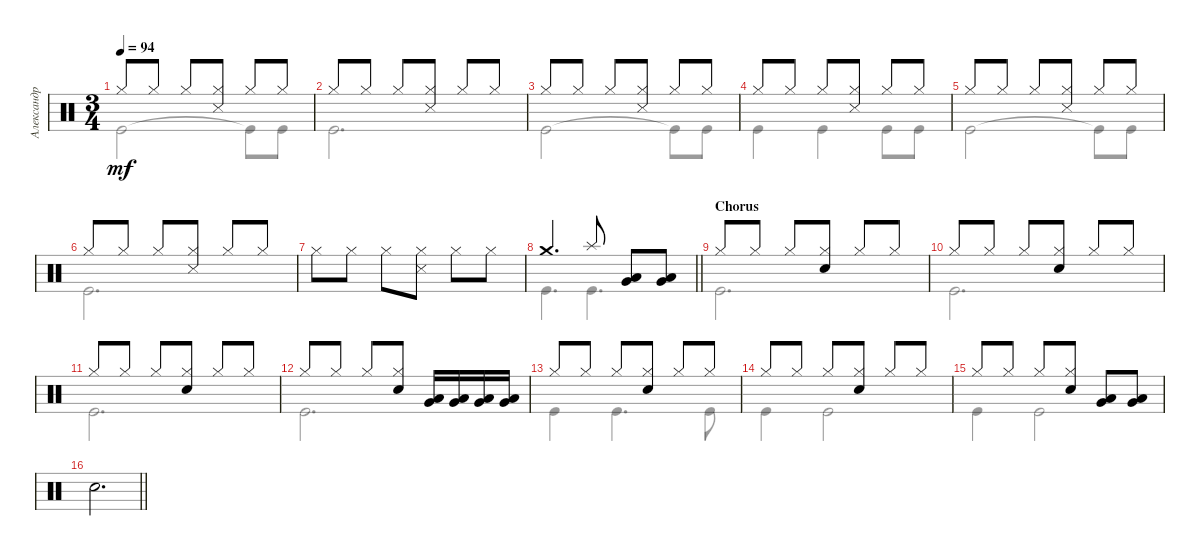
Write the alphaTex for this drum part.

\track ("Александр Манякин" "Александр ") {instrument percussion}
\staff {score}
\articulation defaults
\voice
\ts (3 4)
\tempo 94
\clef neutral
\ks c "Hi-Hat (closed)".8{dy mf} "Hi-Hat (closed)".8 "Hi-Hat (closed)".8
("Hi-Hat (closed)" "Snare (side stick) 3").8 "Hi-Hat (closed)".8 "Hi-Hat (closed)".8 |
"Hi-Hat (closed)".8 "Hi-Hat (closed)".8 "Hi-Hat (closed)".8 ("Hi-Hat (closed)" "Snare (side stick) 3").8 "Hi-Hat (closed)".8 "Hi-Hat (closed)".8 |
"Hi-Hat (closed)".8 "Hi-Hat (closed)".8 "Hi-Hat (closed)".8 ("Hi-Hat (closed)" "Snare (side stick) 3").8 "Hi-Hat (closed)".8 "Hi-Hat (closed)".8 |
"Hi-Hat (closed)".8 "Hi-Hat (closed)".8 "Hi-Hat (closed)".8 ("Hi-Hat (closed)" "Snare (side stick) 3").8 "Hi-Hat (closed)".8 "Hi-Hat (closed)".8 |
"Hi-Hat (closed)".8 "Hi-Hat (closed)".8 "Hi-Hat (closed)".8 ("Hi-Hat (closed)" "Snare (side stick) 3").8 "Hi-Hat (closed)".8 "Hi-Hat (closed)".8 |
"Hi-Hat (closed)".8 "Hi-Hat (closed)".8 "Hi-Hat (closed)".8 ("Hi-Hat (closed)" "Snare (side stick) 3").8 "Hi-Hat (closed)".8 "Hi-Hat (closed)".8 |
"Hi-Hat (closed)".8 "Hi-Hat (closed)".8 "Hi-Hat (closed)".8 ("Hi-Hat (closed)" "Snare (side stick) 3").8 "Hi-Hat (closed)".8 "Hi-Hat (closed)".8 |
\barLineRight lightlight "Crash medium (hit)".4{d} "Splash (hit)".8
("Very Low Tom (hit)" "Low Tom (hit)").8 ("Very Low Tom (hit)" "Low Tom (hit)").8 |
\section ("" "Chorus")
"Hi-Hat (closed)".8 "Hi-Hat (closed)".8 "Hi-Hat (closed)".8 ("Hi-Hat (closed)" "Snare (hit) 2").8 "Hi-Hat (closed)".8 "Hi-Hat (closed)".8 |
"Hi-Hat (closed)".8 "Hi-Hat (closed)".8 "Hi-Hat (closed)".8 ("Hi-Hat (closed)" "Snare (hit) 2").8 "Hi-Hat (closed)".8 "Hi-Hat (closed)".8 |
"Hi-Hat (closed)".8 "Hi-Hat (closed)".8 "Hi-Hat (closed)".8 ("Hi-Hat (closed)" "Snare (hit) 2").8 "Hi-Hat (closed)".8 "Hi-Hat (closed)".8 |
"Hi-Hat (closed)".8 "Hi-Hat (closed)".8 "Hi-Hat (closed)".8 ("Hi-Hat (closed)" "Snare (hit) 2").8 ("Very Low Tom (hit)" "Low Tom (hit)").16 ("Very Low Tom (hit)" "Low Tom (hit)").16 ("Very Low Tom (hit)" "Low Tom (hit)").16 ("Very Low Tom (hit)" "Low Tom (hit)").16 |
"Hi-Hat (closed)".8 "Hi-Hat (closed)".8 "Hi-Hat (closed)".8 ("Hi-Hat (closed)" "Snare (hit) 2").8 "Hi-Hat (closed)".8 "Hi-Hat (closed)".8 |
"Hi-Hat (closed)".8 "Hi-Hat (closed)".8 "Hi-Hat (closed)".8 ("Hi-Hat (closed)" "Snare (hit) 2").8 "Hi-Hat (closed)".8 "Hi-Hat (closed)".8 |
"Hi-Hat (closed)".8 "Hi-Hat (closed)".8 "Hi-Hat (closed)".8 ("Hi-Hat (closed)" "Snare (hit) 2").8 ("Very Low Tom (hit)" "Low Tom (hit)").8 ("Very Low Tom (hit)" "Low Tom (hit)").8 |
\barLineRight lightlight "Snare (hit) 2".2{d}
\voice
\clef neutral
\ottava regular
\simile none
\ks c "Kick (hit)".2{dy mf} "Kick (hit)"{t}.8 "Kick (hit)".8
|
"Kick (hit)".2{d} |
"Kick (hit)".2 "Kick (hit)"{t}.8 "Kick (hit)".8 |
"Kick (hit)".4 "Kick (hit)".4 "Kick (hit)".8 "Kick (hit)".8 |
"Kick (hit)".2 "Kick (hit)"{t}.8 "Kick (hit)".8 |
"Kick (hit)".2{d} |
|
\barLineRight lightlight "Kick (hit)".4{d} "Kick (hit)".4{d}
|
"Kick (hit)".2{d} |
"Kick (hit)".2{d} |
"Kick (hit)".2{d} |
"Kick (hit)".2{d} |
"Kick (hit)".4 "Kick (hit)".4{d} "Kick (hit)".8 |
"Kick (hit)".4 "Kick (hit)".2 |
"Kick (hit)".4 "Kick (hit)".2 |
\barLineRight lightlight
